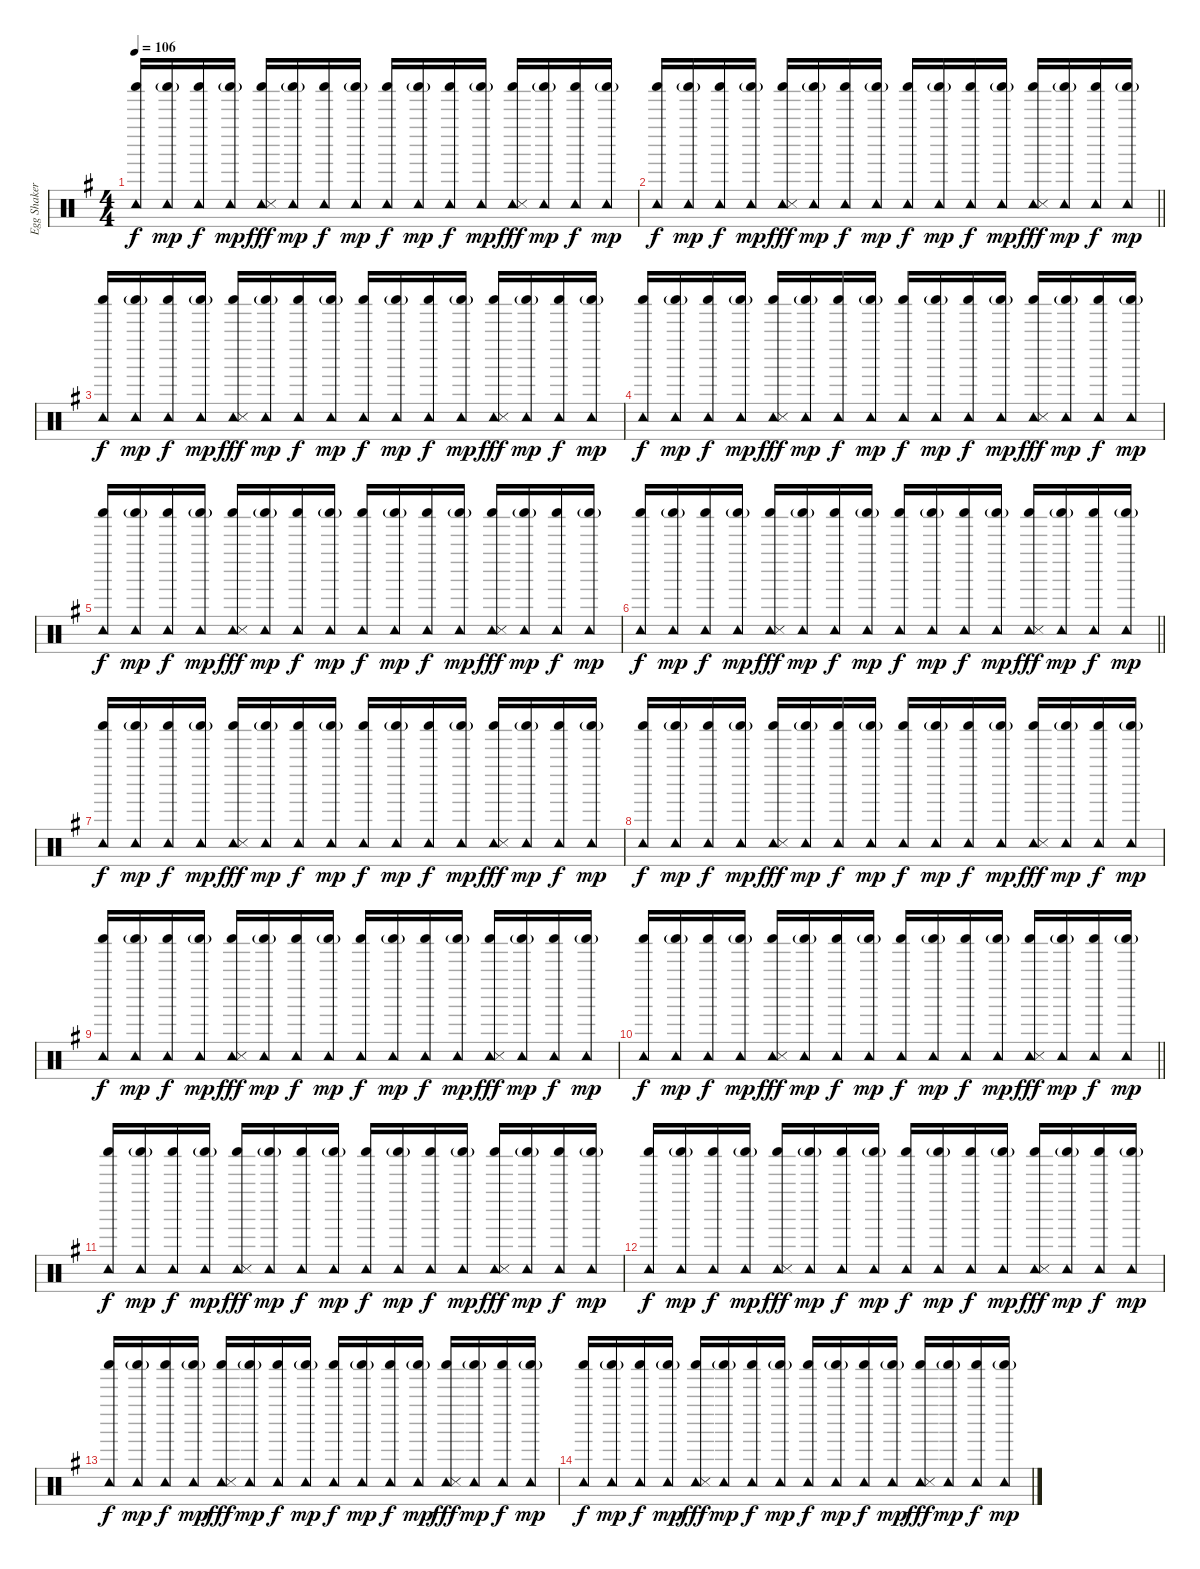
\track ("Egg Shaker and Tambourine" "Egg Shaker") {instrument percussion}
\staff {score}
\articulation defaults
\ts (4 4)
\tempo 106
\clef neutral
\ks eminor
("Tambourine (hit)" "Shaker (hit)").16{dy f beam Up} ("Tambourine (hit)" "Shaker (hit)"{g}).16{dy mp beam Up} ("Tambourine (hit)" "Shaker (hit)").16{dy f beam Up} ("Tambourine (hit)" "Shaker (hit)"{g}).16{dy mp beam Up} ("Tambourine (hit)" "Shaker (hit)" "Snare (side stick) 3").16{dy fff beam Up} ("Tambourine (hit)" "Shaker (hit)"{g}).16{dy mp beam Up} ("Tambourine (hit)" "Shaker (hit)").16{dy f beam Up} ("Tambourine (hit)" "Shaker (hit)"{g}).16{dy mp beam Up} ("Tambourine (hit)" "Shaker (hit)").16{dy f beam Up} ("Tambourine (hit)" "Shaker (hit)"{g}).16{dy mp beam Up} ("Tambourine (hit)" "Shaker (hit)").16{dy f beam Up} ("Tambourine (hit)" "Shaker (hit)"{g}).16{dy mp beam Up} ("Tambourine (hit)" "Shaker (hit)" "Snare (side stick) 3").16{dy fff beam Up} ("Tambourine (hit)" "Shaker (hit)"{g}).16{dy mp beam Up} ("Tambourine (hit)" "Shaker (hit)").16{dy f beam Up} ("Tambourine (hit)" "Shaker (hit)"{g}).16{dy mp beam Up} |
\barLineRight lightlight
("Tambourine (hit)" "Shaker (hit)").16{dy f beam Up} ("Tambourine (hit)" "Shaker (hit)"{g}).16{dy mp beam Up} ("Tambourine (hit)" "Shaker (hit)").16{dy f beam Up} ("Tambourine (hit)" "Shaker (hit)"{g}).16{dy mp beam Up} ("Tambourine (hit)" "Shaker (hit)" "Snare (side stick) 3").16{dy fff beam Up} ("Tambourine (hit)" "Shaker (hit)"{g}).16{dy mp beam Up} ("Tambourine (hit)" "Shaker (hit)").16{dy f beam Up} ("Tambourine (hit)" "Shaker (hit)"{g}).16{dy mp beam Up} ("Tambourine (hit)" "Shaker (hit)").16{dy f beam Up} ("Tambourine (hit)" "Shaker (hit)"{g}).16{dy mp beam Up} ("Tambourine (hit)" "Shaker (hit)").16{dy f beam Up} ("Tambourine (hit)" "Shaker (hit)"{g}).16{dy mp beam Up} ("Tambourine (hit)" "Shaker (hit)" "Snare (side stick) 3").16{dy fff beam Up} ("Tambourine (hit)" "Shaker (hit)"{g}).16{dy mp beam Up} ("Tambourine (hit)" "Shaker (hit)").16{dy f beam Up} ("Tambourine (hit)" "Shaker (hit)"{g}).16{dy mp beam Up} |
("Tambourine (hit)" "Shaker (hit)").16{dy f beam Up} ("Tambourine (hit)" "Shaker (hit)"{g}).16{dy mp beam Up} ("Tambourine (hit)" "Shaker (hit)").16{dy f beam Up} ("Tambourine (hit)" "Shaker (hit)"{g}).16{dy mp beam Up} ("Tambourine (hit)" "Shaker (hit)" "Snare (side stick) 3").16{dy fff beam Up} ("Tambourine (hit)" "Shaker (hit)"{g}).16{dy mp beam Up} ("Tambourine (hit)" "Shaker (hit)").16{dy f beam Up} ("Tambourine (hit)" "Shaker (hit)"{g}).16{dy mp beam Up} ("Tambourine (hit)" "Shaker (hit)").16{dy f beam Up} ("Tambourine (hit)" "Shaker (hit)"{g}).16{dy mp beam Up} ("Tambourine (hit)" "Shaker (hit)").16{dy f beam Up} ("Tambourine (hit)" "Shaker (hit)"{g}).16{dy mp beam Up} ("Tambourine (hit)" "Shaker (hit)" "Snare (side stick) 3").16{dy fff beam Up} ("Tambourine (hit)" "Shaker (hit)"{g}).16{dy mp beam Up} ("Tambourine (hit)" "Shaker (hit)").16{dy f beam Up} ("Tambourine (hit)" "Shaker (hit)"{g}).16{dy mp beam Up} |
("Tambourine (hit)" "Shaker (hit)").16{dy f beam Up} ("Tambourine (hit)" "Shaker (hit)"{g}).16{dy mp beam Up} ("Tambourine (hit)" "Shaker (hit)").16{dy f beam Up} ("Tambourine (hit)" "Shaker (hit)"{g}).16{dy mp beam Up} ("Tambourine (hit)" "Shaker (hit)" "Snare (side stick) 3").16{dy fff beam Up} ("Tambourine (hit)" "Shaker (hit)"{g}).16{dy mp beam Up} ("Tambourine (hit)" "Shaker (hit)").16{dy f beam Up} ("Tambourine (hit)" "Shaker (hit)"{g}).16{dy mp beam Up} ("Tambourine (hit)" "Shaker (hit)").16{dy f beam Up} ("Tambourine (hit)" "Shaker (hit)"{g}).16{dy mp beam Up} ("Tambourine (hit)" "Shaker (hit)").16{dy f beam Up} ("Tambourine (hit)" "Shaker (hit)"{g}).16{dy mp beam Up} ("Tambourine (hit)" "Shaker (hit)" "Snare (side stick) 3").16{dy fff beam Up} ("Tambourine (hit)" "Shaker (hit)"{g}).16{dy mp beam Up} ("Tambourine (hit)" "Shaker (hit)").16{dy f beam Up} ("Tambourine (hit)" "Shaker (hit)"{g}).16{dy mp beam Up} |
("Tambourine (hit)" "Shaker (hit)").16{dy f beam Up} ("Tambourine (hit)" "Shaker (hit)"{g}).16{dy mp beam Up} ("Tambourine (hit)" "Shaker (hit)").16{dy f beam Up} ("Tambourine (hit)" "Shaker (hit)"{g}).16{dy mp beam Up} ("Tambourine (hit)" "Shaker (hit)" "Snare (side stick) 3").16{dy fff beam Up} ("Tambourine (hit)" "Shaker (hit)"{g}).16{dy mp beam Up} ("Tambourine (hit)" "Shaker (hit)").16{dy f beam Up} ("Tambourine (hit)" "Shaker (hit)"{g}).16{dy mp beam Up} ("Tambourine (hit)" "Shaker (hit)").16{dy f beam Up} ("Tambourine (hit)" "Shaker (hit)"{g}).16{dy mp beam Up} ("Tambourine (hit)" "Shaker (hit)").16{dy f beam Up} ("Tambourine (hit)" "Shaker (hit)"{g}).16{dy mp beam Up} ("Tambourine (hit)" "Shaker (hit)" "Snare (side stick) 3").16{dy fff beam Up} ("Tambourine (hit)" "Shaker (hit)"{g}).16{dy mp beam Up} ("Tambourine (hit)" "Shaker (hit)").16{dy f beam Up} ("Tambourine (hit)" "Shaker (hit)"{g}).16{dy mp beam Up} |
\barLineRight lightlight
("Tambourine (hit)" "Shaker (hit)").16{dy f beam Up} ("Tambourine (hit)" "Shaker (hit)"{g}).16{dy mp beam Up} ("Tambourine (hit)" "Shaker (hit)").16{dy f beam Up} ("Tambourine (hit)" "Shaker (hit)"{g}).16{dy mp beam Up} ("Tambourine (hit)" "Shaker (hit)" "Snare (side stick) 3").16{dy fff beam Up} ("Tambourine (hit)" "Shaker (hit)"{g}).16{dy mp beam Up} ("Tambourine (hit)" "Shaker (hit)").16{dy f beam Up} ("Tambourine (hit)" "Shaker (hit)"{g}).16{dy mp beam Up} ("Tambourine (hit)" "Shaker (hit)").16{dy f beam Up} ("Tambourine (hit)" "Shaker (hit)"{g}).16{dy mp beam Up} ("Tambourine (hit)" "Shaker (hit)").16{dy f beam Up} ("Tambourine (hit)" "Shaker (hit)"{g}).16{dy mp beam Up} ("Tambourine (hit)" "Shaker (hit)" "Snare (side stick) 3").16{dy fff beam Up} ("Tambourine (hit)" "Shaker (hit)"{g}).16{dy mp beam Up} ("Tambourine (hit)" "Shaker (hit)").16{dy f beam Up} ("Tambourine (hit)" "Shaker (hit)"{g}).16{dy mp beam Up} |
("Tambourine (hit)" "Shaker (hit)").16{dy f volume 3 beam Up} ("Tambourine (hit)" "Shaker (hit)"{g}).16{dy mp beam Up} ("Tambourine (hit)" "Shaker (hit)").16{dy f beam Up} ("Tambourine (hit)" "Shaker (hit)"{g}).16{dy mp beam Up} ("Tambourine (hit)" "Shaker (hit)" "Snare (side stick) 3").16{dy fff beam Up} ("Tambourine (hit)" "Shaker (hit)"{g}).16{dy mp beam Up} ("Tambourine (hit)" "Shaker (hit)").16{dy f beam Up} ("Tambourine (hit)" "Shaker (hit)"{g}).16{dy mp beam Up} ("Tambourine (hit)" "Shaker (hit)").16{dy f beam Up} ("Tambourine (hit)" "Shaker (hit)"{g}).16{dy mp beam Up} ("Tambourine (hit)" "Shaker (hit)").16{dy f beam Up} ("Tambourine (hit)" "Shaker (hit)"{g}).16{dy mp beam Up} ("Tambourine (hit)" "Shaker (hit)" "Snare (side stick) 3").16{dy fff beam Up} ("Tambourine (hit)" "Shaker (hit)"{g}).16{dy mp beam Up} ("Tambourine (hit)" "Shaker (hit)").16{dy f beam Up} ("Tambourine (hit)" "Shaker (hit)"{g}).16{dy mp beam Up} |
("Tambourine (hit)" "Shaker (hit)").16{dy f beam Up} ("Tambourine (hit)" "Shaker (hit)"{g}).16{dy mp beam Up} ("Tambourine (hit)" "Shaker (hit)").16{dy f beam Up} ("Tambourine (hit)" "Shaker (hit)"{g}).16{dy mp beam Up} ("Tambourine (hit)" "Shaker (hit)" "Snare (side stick) 3").16{dy fff beam Up} ("Tambourine (hit)" "Shaker (hit)"{g}).16{dy mp beam Up} ("Tambourine (hit)" "Shaker (hit)").16{dy f beam Up} ("Tambourine (hit)" "Shaker (hit)"{g}).16{dy mp beam Up} ("Tambourine (hit)" "Shaker (hit)").16{dy f beam Up} ("Tambourine (hit)" "Shaker (hit)"{g}).16{dy mp beam Up} ("Tambourine (hit)" "Shaker (hit)").16{dy f beam Up} ("Tambourine (hit)" "Shaker (hit)"{g}).16{dy mp beam Up} ("Tambourine (hit)" "Shaker (hit)" "Snare (side stick) 3").16{dy fff beam Up} ("Tambourine (hit)" "Shaker (hit)"{g}).16{dy mp beam Up} ("Tambourine (hit)" "Shaker (hit)").16{dy f beam Up} ("Tambourine (hit)" "Shaker (hit)"{g}).16{dy mp beam Up} |
("Tambourine (hit)" "Shaker (hit)").16{dy f beam Up} ("Tambourine (hit)" "Shaker (hit)"{g}).16{dy mp beam Up} ("Tambourine (hit)" "Shaker (hit)").16{dy f beam Up} ("Tambourine (hit)" "Shaker (hit)"{g}).16{dy mp beam Up} ("Tambourine (hit)" "Shaker (hit)" "Snare (side stick) 3").16{dy fff beam Up} ("Tambourine (hit)" "Shaker (hit)"{g}).16{dy mp beam Up} ("Tambourine (hit)" "Shaker (hit)").16{dy f beam Up} ("Tambourine (hit)" "Shaker (hit)"{g}).16{dy mp beam Up} ("Tambourine (hit)" "Shaker (hit)").16{dy f beam Up} ("Tambourine (hit)" "Shaker (hit)"{g}).16{dy mp beam Up} ("Tambourine (hit)" "Shaker (hit)").16{dy f beam Up} ("Tambourine (hit)" "Shaker (hit)"{g}).16{dy mp beam Up} ("Tambourine (hit)" "Shaker (hit)" "Snare (side stick) 3").16{dy fff beam Up} ("Tambourine (hit)" "Shaker (hit)"{g}).16{dy mp beam Up} ("Tambourine (hit)" "Shaker (hit)").16{dy f beam Up} ("Tambourine (hit)" "Shaker (hit)"{g}).16{dy mp beam Up} |
\barLineRight lightlight
("Tambourine (hit)" "Shaker (hit)").16{dy f beam Up} ("Tambourine (hit)" "Shaker (hit)"{g}).16{dy mp beam Up} ("Tambourine (hit)" "Shaker (hit)").16{dy f beam Up} ("Tambourine (hit)" "Shaker (hit)"{g}).16{dy mp beam Up} ("Tambourine (hit)" "Shaker (hit)" "Snare (side stick) 3").16{dy fff beam Up} ("Tambourine (hit)" "Shaker (hit)"{g}).16{dy mp beam Up} ("Tambourine (hit)" "Shaker (hit)").16{dy f beam Up} ("Tambourine (hit)" "Shaker (hit)"{g}).16{dy mp beam Up} ("Tambourine (hit)" "Shaker (hit)").16{dy f beam Up} ("Tambourine (hit)" "Shaker (hit)"{g}).16{dy mp beam Up} ("Tambourine (hit)" "Shaker (hit)").16{dy f beam Up} ("Tambourine (hit)" "Shaker (hit)"{g}).16{dy mp beam Up} ("Tambourine (hit)" "Shaker (hit)" "Snare (side stick) 3").16{dy fff beam Up} ("Tambourine (hit)" "Shaker (hit)"{g}).16{dy mp beam Up} ("Tambourine (hit)" "Shaker (hit)").16{dy f beam Up} ("Tambourine (hit)" "Shaker (hit)"{g}).16{dy mp beam Up} |
("Tambourine (hit)" "Shaker (hit)").16{dy f volume 0 beam Up} ("Tambourine (hit)" "Shaker (hit)"{g}).16{dy mp beam Up} ("Tambourine (hit)" "Shaker (hit)").16{dy f beam Up} ("Tambourine (hit)" "Shaker (hit)"{g}).16{dy mp beam Up} ("Tambourine (hit)" "Shaker (hit)" "Snare (side stick) 3").16{dy fff beam Up} ("Tambourine (hit)" "Shaker (hit)"{g}).16{dy mp beam Up} ("Tambourine (hit)" "Shaker (hit)").16{dy f beam Up} ("Tambourine (hit)" "Shaker (hit)"{g}).16{dy mp beam Up} ("Tambourine (hit)" "Shaker (hit)").16{dy f beam Up} ("Tambourine (hit)" "Shaker (hit)"{g}).16{dy mp beam Up} ("Tambourine (hit)" "Shaker (hit)").16{dy f beam Up} ("Tambourine (hit)" "Shaker (hit)"{g}).16{dy mp beam Up} ("Tambourine (hit)" "Shaker (hit)" "Snare (side stick) 3").16{dy fff beam Up} ("Tambourine (hit)" "Shaker (hit)"{g}).16{dy mp beam Up} ("Tambourine (hit)" "Shaker (hit)").16{dy f beam Up} ("Tambourine (hit)" "Shaker (hit)"{g}).16{dy mp beam Up} |
("Tambourine (hit)" "Shaker (hit)").16{dy f beam Up} ("Tambourine (hit)" "Shaker (hit)"{g}).16{dy mp beam Up} ("Tambourine (hit)" "Shaker (hit)").16{dy f beam Up} ("Tambourine (hit)" "Shaker (hit)"{g}).16{dy mp beam Up} ("Tambourine (hit)" "Shaker (hit)" "Snare (side stick) 3").16{dy fff beam Up} ("Tambourine (hit)" "Shaker (hit)"{g}).16{dy mp beam Up} ("Tambourine (hit)" "Shaker (hit)").16{dy f beam Up} ("Tambourine (hit)" "Shaker (hit)"{g}).16{dy mp beam Up} ("Tambourine (hit)" "Shaker (hit)").16{dy f beam Up} ("Tambourine (hit)" "Shaker (hit)"{g}).16{dy mp beam Up} ("Tambourine (hit)" "Shaker (hit)").16{dy f beam Up} ("Tambourine (hit)" "Shaker (hit)"{g}).16{dy mp beam Up} ("Tambourine (hit)" "Shaker (hit)" "Snare (side stick) 3").16{dy fff beam Up} ("Tambourine (hit)" "Shaker (hit)"{g}).16{dy mp beam Up} ("Tambourine (hit)" "Shaker (hit)").16{dy f beam Up} ("Tambourine (hit)" "Shaker (hit)"{g}).16{dy mp beam Up} |
("Tambourine (hit)" "Shaker (hit)").16{dy f beam Up} ("Tambourine (hit)" "Shaker (hit)"{g}).16{dy mp beam Up} ("Tambourine (hit)" "Shaker (hit)").16{dy f beam Up} ("Tambourine (hit)" "Shaker (hit)"{g}).16{dy mp beam Up} ("Tambourine (hit)" "Shaker (hit)" "Snare (side stick) 3").16{dy fff beam Up} ("Tambourine (hit)" "Shaker (hit)"{g}).16{dy mp beam Up} ("Tambourine (hit)" "Shaker (hit)").16{dy f beam Up} ("Tambourine (hit)" "Shaker (hit)"{g}).16{dy mp beam Up} ("Tambourine (hit)" "Shaker (hit)").16{dy f beam Up} ("Tambourine (hit)" "Shaker (hit)"{g}).16{dy mp beam Up} ("Tambourine (hit)" "Shaker (hit)").16{dy f beam Up} ("Tambourine (hit)" "Shaker (hit)"{g}).16{dy mp beam Up} ("Tambourine (hit)" "Shaker (hit)" "Snare (side stick) 3").16{dy fff beam Up} ("Tambourine (hit)" "Shaker (hit)"{g}).16{dy mp beam Up} ("Tambourine (hit)" "Shaker (hit)").16{dy f beam Up} ("Tambourine (hit)" "Shaker (hit)"{g}).16{dy mp beam Up} |
("Tambourine (hit)" "Shaker (hit)").16{dy f beam Up} ("Tambourine (hit)" "Shaker (hit)"{g}).16{dy mp beam Up} ("Tambourine (hit)" "Shaker (hit)").16{dy f beam Up} ("Tambourine (hit)" "Shaker (hit)"{g}).16{dy mp beam Up} ("Tambourine (hit)" "Shaker (hit)" "Snare (side stick) 3").16{dy fff beam Up} ("Tambourine (hit)" "Shaker (hit)"{g}).16{dy mp beam Up} ("Tambourine (hit)" "Shaker (hit)").16{dy f beam Up} ("Tambourine (hit)" "Shaker (hit)"{g}).16{dy mp beam Up} ("Tambourine (hit)" "Shaker (hit)").16{dy f beam Up} ("Tambourine (hit)" "Shaker (hit)"{g}).16{dy mp beam Up} ("Tambourine (hit)" "Shaker (hit)").16{dy f beam Up} ("Tambourine (hit)" "Shaker (hit)"{g}).16{dy mp beam Up} ("Tambourine (hit)" "Shaker (hit)" "Snare (side stick) 3").16{dy fff beam Up} ("Tambourine (hit)" "Shaker (hit)"{g}).16{dy mp beam Up} ("Tambourine (hit)" "Shaker (hit)").16{dy f beam Up} ("Tambourine (hit)" "Shaker (hit)"{g}).16{dy mp beam Up}
